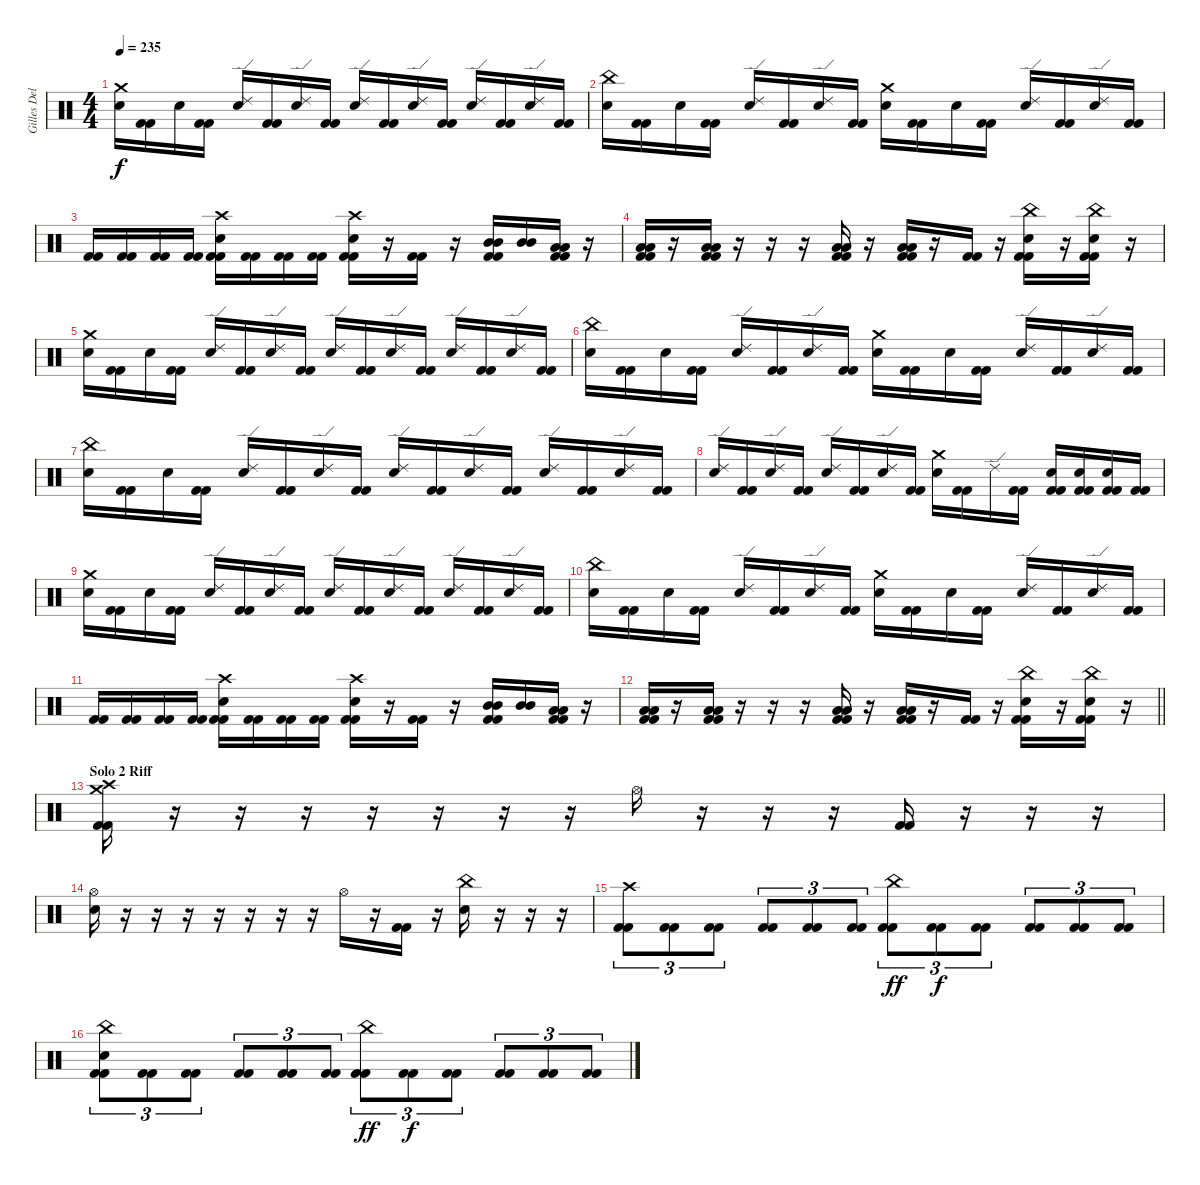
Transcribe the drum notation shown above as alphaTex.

\track ("Gilles Delecroix" "Gilles Del") {instrument percussion}
\staff {score}
\articulation defaults
\ts (4 4)
\tempo 235
\clef neutral
\ks c
("Crash medium (hit)" "Electric Snare (hit)").16{dy f} ("Kick (hit) 2" "Kick (hit) 2").16 "Electric Snare (hit)".16 ("Kick (hit) 2" "Kick (hit) 2").16 ("Ride (edge) 2" "Electric Snare (hit)").16 ("Kick (hit) 2" "Kick (hit) 2").16 ("Ride (edge) 2" "Electric Snare (hit)").16 ("Kick (hit) 2" "Kick (hit) 2").16 ("Ride (edge) 2" "Electric Snare (hit)").16 ("Kick (hit) 2" "Kick (hit) 2").16 ("Ride (edge) 2" "Electric Snare (hit)").16 ("Kick (hit) 2" "Kick (hit) 2").16 ("Ride (edge) 2" "Electric Snare (hit)").16 ("Kick (hit) 2" "Kick (hit) 2").16 ("Ride (edge) 2" "Electric Snare (hit)").16 ("Kick (hit) 2" "Kick (hit) 2").16 |
("China (hit)" "Electric Snare (hit)").16 ("Kick (hit) 2" "Kick (hit) 2").16 "Electric Snare (hit)".16 ("Kick (hit) 2" "Kick (hit) 2").16 ("Ride (edge) 2" "Electric Snare (hit)").16 ("Kick (hit) 2" "Kick (hit) 2").16 ("Ride (edge) 2" "Electric Snare (hit)").16 ("Kick (hit) 2" "Kick (hit) 2").16 ("Crash medium (hit)" "Electric Snare (hit)").16 ("Kick (hit) 2" "Kick (hit) 2").16 "Electric Snare (hit)".16 ("Kick (hit) 2" "Kick (hit) 2").16 ("Ride (edge) 2" "Electric Snare (hit)").16 ("Kick (hit) 2" "Kick (hit) 2").16 ("Ride (edge) 2" "Electric Snare (hit)").16 ("Kick (hit) 2" "Kick (hit) 2").16 |
("Kick (hit) 2" "Kick (hit) 2").16 ("Kick (hit) 2" "Kick (hit) 2").16 ("Kick (hit) 2" "Kick (hit) 2").16 ("Kick (hit) 2" "Kick (hit) 2").16 ("Crash high (hit)" "Electric Snare (hit)" "Kick (hit) 2" "Kick (hit) 2").16 ("Kick (hit) 2" "Kick (hit) 2").16 ("Kick (hit) 2" "Kick (hit) 2").16 ("Kick (hit) 2" "Kick (hit) 2").16 ("Crash high (hit)" "Electric Snare (hit)" "Kick (hit) 2" "Kick (hit) 2").16 r.16 ("Kick (hit) 2" "Kick (hit) 2").16 r.16 ("Mid Tom (hit)" "Mid Tom (hit)" "Kick (hit) 2" "Kick (hit) 2").16 ("Mid Tom (hit)" "Mid Tom (hit)").16 ("Low Tom (hit)" "Low Tom (hit)" "Kick (hit) 2" "Kick (hit) 2").16 r.16 |
("Low Tom (hit)" "Low Tom (hit)" "Kick (hit) 2" "Kick (hit) 2").16 r.16 ("Low Tom (hit)" "Low Tom (hit)" "Kick (hit) 2" "Kick (hit) 2").16 r.16 r.16 r.16 ("Low Tom (hit)" "Low Tom (hit)" "Kick (hit) 2" "Kick (hit) 2").16 r.16 ("Low Tom (hit)" "Low Tom (hit)" "Kick (hit) 2" "Kick (hit) 2").16 r.16 ("Kick (hit) 2" "Kick (hit) 2").16 r.16 ("China (hit)" "Electric Snare (hit)" "Kick (hit) 2" "Kick (hit) 2").16 r.16 ("China (hit)" "Electric Snare (hit)" "Kick (hit) 2" "Kick (hit) 2").16 r.16 |
("Crash medium (hit)" "Electric Snare (hit)").16 ("Kick (hit) 2" "Kick (hit) 2").16 "Electric Snare (hit)".16 ("Kick (hit) 2" "Kick (hit) 2").16 ("Ride (edge) 2" "Electric Snare (hit)").16 ("Kick (hit) 2" "Kick (hit) 2").16 ("Ride (edge) 2" "Electric Snare (hit)").16 ("Kick (hit) 2" "Kick (hit) 2").16 ("Ride (edge) 2" "Electric Snare (hit)").16 ("Kick (hit) 2" "Kick (hit) 2").16 ("Ride (edge) 2" "Electric Snare (hit)").16 ("Kick (hit) 2" "Kick (hit) 2").16 ("Ride (edge) 2" "Electric Snare (hit)").16 ("Kick (hit) 2" "Kick (hit) 2").16 ("Ride (edge) 2" "Electric Snare (hit)").16 ("Kick (hit) 2" "Kick (hit) 2").16 |
("China (hit)" "Electric Snare (hit)").16 ("Kick (hit) 2" "Kick (hit) 2").16 "Electric Snare (hit)".16 ("Kick (hit) 2" "Kick (hit) 2").16 ("Ride (edge) 2" "Electric Snare (hit)").16 ("Kick (hit) 2" "Kick (hit) 2").16 ("Ride (edge) 2" "Electric Snare (hit)").16 ("Kick (hit) 2" "Kick (hit) 2").16 ("Crash medium (hit)" "Electric Snare (hit)").16 ("Kick (hit) 2" "Kick (hit) 2").16 "Electric Snare (hit)".16 ("Kick (hit) 2" "Kick (hit) 2").16 ("Ride (edge) 2" "Electric Snare (hit)").16 ("Kick (hit) 2" "Kick (hit) 2").16 ("Ride (edge) 2" "Electric Snare (hit)").16 ("Kick (hit) 2" "Kick (hit) 2").16 |
("China (hit)" "Electric Snare (hit)").16 ("Kick (hit) 2" "Kick (hit) 2").16 "Electric Snare (hit)".16 ("Kick (hit) 2" "Kick (hit) 2").16 ("Ride (edge) 2" "Electric Snare (hit)").16 ("Kick (hit) 2" "Kick (hit) 2").16 ("Ride (edge) 2" "Electric Snare (hit)").16 ("Kick (hit) 2" "Kick (hit) 2").16 ("Ride (edge) 2" "Electric Snare (hit)").16 ("Kick (hit) 2" "Kick (hit) 2").16 ("Ride (edge) 2" "Electric Snare (hit)").16 ("Kick (hit) 2" "Kick (hit) 2").16 ("Ride (edge) 2" "Electric Snare (hit)").16 ("Kick (hit) 2" "Kick (hit) 2").16 ("Ride (edge) 2" "Electric Snare (hit)").16 ("Kick (hit) 2" "Kick (hit) 2").16 |
("Ride (edge) 2" "Electric Snare (hit)").16 ("Kick (hit) 2" "Kick (hit) 2").16 ("Ride (edge) 2" "Electric Snare (hit)").16 ("Kick (hit) 2" "Kick (hit) 2").16 ("Ride (edge) 2" "Electric Snare (hit)").16 ("Kick (hit) 2" "Kick (hit) 2").16 ("Ride (edge) 2" "Electric Snare (hit)").16 ("Kick (hit) 2" "Kick (hit) 2").16 ("Crash medium (hit)" "Electric Snare (hit)").16 ("Kick (hit) 2" "Kick (hit) 2").16 "Ride (edge) 2".16 ("Kick (hit) 2" "Kick (hit) 2").16 ("Electric Snare (hit)" "Kick (hit) 2" "Kick (hit) 2").16 ("Electric Snare (hit)" "Kick (hit) 2" "Kick (hit) 2").16 ("Electric Snare (hit)" "Kick (hit) 2" "Kick (hit) 2").16 ("Kick (hit) 2" "Kick (hit) 2").16 |
("Crash medium (hit)" "Electric Snare (hit)").16 ("Kick (hit) 2" "Kick (hit) 2").16 "Electric Snare (hit)".16 ("Kick (hit) 2" "Kick (hit) 2").16 ("Ride (edge) 2" "Electric Snare (hit)").16 ("Kick (hit) 2" "Kick (hit) 2").16 ("Ride (edge) 2" "Electric Snare (hit)").16 ("Kick (hit) 2" "Kick (hit) 2").16 ("Ride (edge) 2" "Electric Snare (hit)").16 ("Kick (hit) 2" "Kick (hit) 2").16 ("Ride (edge) 2" "Electric Snare (hit)").16 ("Kick (hit) 2" "Kick (hit) 2").16 ("Ride (edge) 2" "Electric Snare (hit)").16 ("Kick (hit) 2" "Kick (hit) 2").16 ("Ride (edge) 2" "Electric Snare (hit)").16 ("Kick (hit) 2" "Kick (hit) 2").16 |
("China (hit)" "Electric Snare (hit)").16 ("Kick (hit) 2" "Kick (hit) 2").16 "Electric Snare (hit)".16 ("Kick (hit) 2" "Kick (hit) 2").16 ("Ride (edge) 2" "Electric Snare (hit)").16 ("Kick (hit) 2" "Kick (hit) 2").16 ("Ride (edge) 2" "Electric Snare (hit)").16 ("Kick (hit) 2" "Kick (hit) 2").16 ("Crash medium (hit)" "Electric Snare (hit)").16 ("Kick (hit) 2" "Kick (hit) 2").16 "Electric Snare (hit)".16 ("Kick (hit) 2" "Kick (hit) 2").16 ("Ride (edge) 2" "Electric Snare (hit)").16 ("Kick (hit) 2" "Kick (hit) 2").16 ("Ride (edge) 2" "Electric Snare (hit)").16 ("Kick (hit) 2" "Kick (hit) 2").16 |
("Kick (hit) 2" "Kick (hit) 2").16 ("Kick (hit) 2" "Kick (hit) 2").16 ("Kick (hit) 2" "Kick (hit) 2").16 ("Kick (hit) 2" "Kick (hit) 2").16 ("Crash high (hit)" "Electric Snare (hit)" "Kick (hit) 2" "Kick (hit) 2").16 ("Kick (hit) 2" "Kick (hit) 2").16 ("Kick (hit) 2" "Kick (hit) 2").16 ("Kick (hit) 2" "Kick (hit) 2").16 ("Crash high (hit)" "Electric Snare (hit)" "Kick (hit) 2" "Kick (hit) 2").16 r.16 ("Kick (hit) 2" "Kick (hit) 2").16 r.16 ("Mid Tom (hit)" "Mid Tom (hit)" "Kick (hit) 2" "Kick (hit) 2").16 ("Mid Tom (hit)" "Mid Tom (hit)").16 ("Low Tom (hit)" "Low Tom (hit)" "Kick (hit) 2" "Kick (hit) 2").16 r.16 |
\barLineRight lightlight
("Low Tom (hit)" "Low Tom (hit)" "Kick (hit) 2" "Kick (hit) 2").16 r.16 ("Low Tom (hit)" "Low Tom (hit)" "Kick (hit) 2" "Kick (hit) 2").16 r.16 r.16 r.16 ("Low Tom (hit)" "Low Tom (hit)" "Kick (hit) 2" "Kick (hit) 2").16 r.16 ("Low Tom (hit)" "Low Tom (hit)" "Kick (hit) 2" "Kick (hit) 2").16 r.16 ("Kick (hit) 2" "Kick (hit) 2").16 r.16 ("China (hit)" "Electric Snare (hit)" "Kick (hit) 2" "Kick (hit) 2").16 r.16 ("China (hit)" "Electric Snare (hit)" "Kick (hit) 2" "Kick (hit) 2").16 r.16 |
\section ("" "Solo 2 Riff")
("Crash medium (hit)" "Crash high (hit)" "Kick (hit) 2" "Kick (hit) 2").16 r.16 r.16 r.16 r.16 r.16 r.16 r.16 "Hi-Hat (open)".16 r.16 r.16 r.16 ("Kick (hit) 2" "Kick (hit) 2").16 r.16 r.16 r.16 |
("Electric Snare (hit)" "Hi-Hat (open)").16 r.16 r.16 r.16 r.16 r.16 r.16 r.16 "Hi-Hat (open)".16 r.16 ("Kick (hit) 2" "Kick (hit) 2").16 r.16 ("China (hit)" "Electric Snare (hit)").16 r.16 r.16 r.16 |
("Crash high (hit)" "Kick (hit) 2" "Kick (hit) 2").8{tu (3 2)} ("Kick (hit) 2" "Kick (hit) 2").8{tu (3 2)} ("Kick (hit) 2" "Kick (hit) 2").8{tu (3 2)} ("Kick (hit) 2" "Kick (hit) 2").8{tu (3 2)} ("Kick (hit) 2" "Kick (hit) 2").8{tu (3 2)} ("Kick (hit) 2" "Kick (hit) 2").8{tu (3 2)} ("China (hit)" "Kick (hit) 2" "Kick (hit) 2").8{tu (3 2) dy ff} ("Kick (hit) 2" "Kick (hit) 2").8{tu (3 2) dy f} ("Kick (hit) 2" "Kick (hit) 2").8{tu (3 2)} ("Kick (hit) 2" "Kick (hit) 2").8{tu (3 2)} ("Kick (hit) 2" "Kick (hit) 2").8{tu (3 2)} ("Kick (hit) 2" "Kick (hit) 2").8{tu (3 2)} |
("China (hit)" "Electric Snare (hit)" "Kick (hit) 2" "Kick (hit) 2").8{tu (3 2)} ("Kick (hit) 2" "Kick (hit) 2").8{tu (3 2)} ("Kick (hit) 2" "Kick (hit) 2").8{tu (3 2)} ("Kick (hit) 2" "Kick (hit) 2").8{tu (3 2)} ("Kick (hit) 2" "Kick (hit) 2").8{tu (3 2)} ("Kick (hit) 2" "Kick (hit) 2").8{tu (3 2)} ("China (hit)" "Kick (hit) 2" "Kick (hit) 2").8{tu (3 2) dy ff} ("Kick (hit) 2" "Kick (hit) 2").8{tu (3 2) dy f} ("Kick (hit) 2" "Kick (hit) 2").8{tu (3 2)} ("Kick (hit) 2" "Kick (hit) 2").8{tu (3 2)} ("Kick (hit) 2" "Kick (hit) 2").8{tu (3 2)} ("Kick (hit) 2" "Kick (hit) 2").8{tu (3 2)}
